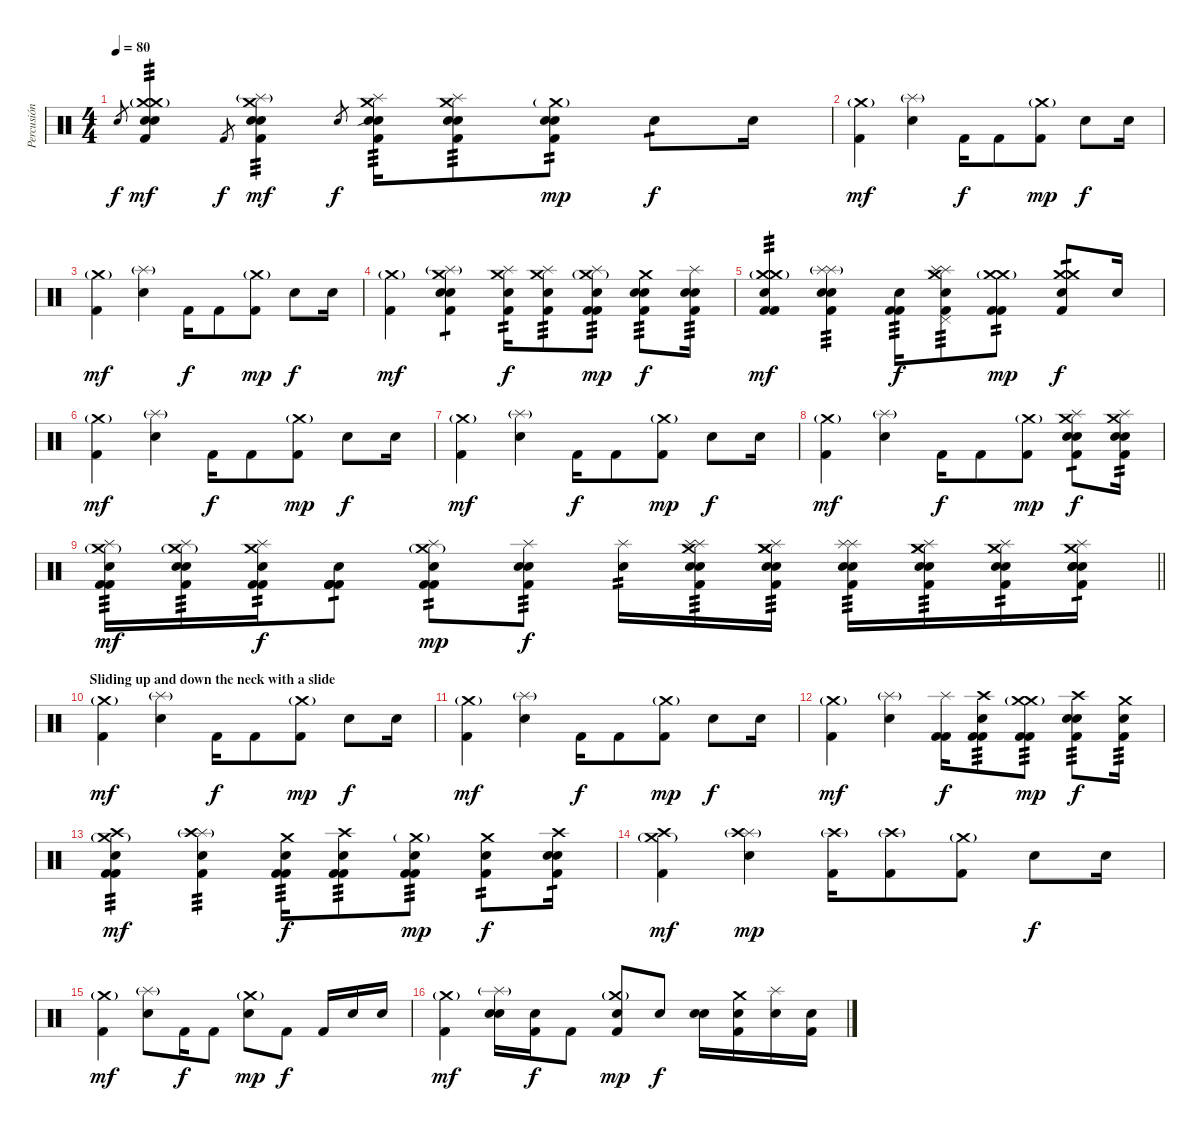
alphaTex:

\track ("Percusión" "Percusión") {instrument percussion}
\staff {score}
\articulation defaults
\ts (4 4)
\tempo 80
\clef neutral
\ks c "Snare (hit) 2".8{gr dy f}
("Crash medium (hit)"{g} "Crash medium (hit)" "Snare (hit) 2" "Kick (hit) 2" "Snare (hit) 2").4{tp 3 dy mf} "Kick (hit) 2".8{gr dy f} ("Splash (hit)"{g} "Crash medium (hit)" "Kick (hit) 2" "Snare (hit) 2" "Snare (hit) 2").4{tp 3 dy mf} "Snare (hit) 2".8{gr dy f} ("Splash (hit)" "Crash medium (hit)" "Snare (hit) 2"{sib} "Kick (hit) 2" "Snare (hit) 2").16{tp 3} ("Splash (hit)" "Crash medium (hit)" "Snare (hit) 2" "Kick (hit) 2" "Snare (hit) 2").8{tp 3} ("Crash medium (hit)"{g} "Snare (hit) 2" "Kick (hit) 2" "Snare (hit) 2").8{tp 2 dy mp} "Snare (hit) 2".8{tp 1 dy f} "Snare (hit)"{x}.16 |
("Crash medium (hit)"{g} "Kick (hit) 2").4{dy mf} ("Splash (hit)"{g} "Snare (hit) 2").4 "Kick (hit) 2".16{dy f} "Kick (hit) 2".8 ("Crash medium (hit)"{g} "Kick (hit) 2").8{dy mp} "Snare (hit) 2".8{dy f} "Snare (hit)"{x}.16 |
("Crash medium (hit)"{g} "Kick (hit) 2").4{dy mf} ("Splash (hit)"{g} "Snare (hit) 2").4 "Kick (hit) 2".16{dy f} "Kick (hit) 2".8 ("Crash medium (hit)"{g} "Kick (hit) 2").8{dy mp} "Snare (hit) 2".8{dy f} "Snare (hit)"{x}.16 |
("Crash medium (hit)"{g} "Kick (hit) 2").4{dy mf} ("Splash (hit)"{g} "Kick (hit) 2" "Crash medium (hit)" "Snare (hit) 2" "Snare (hit) 2").4{tp 1} ("Crash medium (hit)" "Snare (hit) 2" "Kick (hit) 2" "Splash (hit)").16{tp 2 dy f} ("Crash medium (hit)" "Snare (hit) 2" "Kick (hit) 2" "Splash (hit)").8{tp 3} ("Crash medium (hit)"{g} "Kick (hit) 2" "Splash (hit)" "Kick (hit) 2" "Snare (hit) 2").8{tp 3 dy mp} ("Kick (hit) 2" "Crash medium (hit)" "Snare (hit) 2" "Snare (hit) 2").8{tp 3 dy f} ("Kick (hit) 2" "Splash (hit)" "Snare (hit) 2" "Snare (hit) 2").16{tp 3} |
("Crash medium (hit)"{g} "Kick (hit) 2" "Crash medium (hit)" "Kick (hit) 2" "Snare (hit) 2").4{tp 3 dy mf} ("Splash (hit)"{g} "Kick (hit) 2" "Splash (hit)" "Snare (hit) 2" "Snare (hit) 2").4{tp 3} ("Kick (hit) 2" "Kick (hit) 2" "Snare (hit) 2").16{tp 3 dy f} ("Pedal Hi-Hat (hit)" "Splash (hit)" "Crash medium (hit)" "Kick (hit) 2" "Splash (hit)" "Snare (hit) 2").8{tp 3} ("Crash medium (hit)"{g} "Kick (hit) 2" "Crash medium (hit)" "Kick (hit) 2").8{tp 2 dy mp} ("Crash medium (hit)" "Kick (hit) 2" "Crash medium (hit)" "Snare (hit) 2").8{tp 1 dy f} "Snare (hit)"{x}.16 |
("Crash medium (hit)"{g} "Kick (hit) 2").4{dy mf} ("Splash (hit)"{g} "Snare (hit) 2").4 "Kick (hit) 2".16{dy f} "Kick (hit) 2".8 ("Crash medium (hit)"{g} "Kick (hit) 2").8{dy mp} "Snare (hit) 2".8{dy f} "Snare (hit)"{x}.16 |
("Crash medium (hit)"{g} "Kick (hit) 2").4{dy mf} ("Splash (hit)"{g} "Snare (hit) 2").4 "Kick (hit) 2".16{dy f} "Kick (hit) 2".8 ("Crash medium (hit)"{g} "Kick (hit) 2").8{dy mp} "Snare (hit) 2".8{dy f} "Snare (hit)"{x}.16 |
("Crash medium (hit)"{g} "Kick (hit) 2").4{dy mf} ("Splash (hit)"{g} "Snare (hit) 2").4 "Kick (hit) 2".16{dy f} "Kick (hit) 2".8 ("Crash medium (hit)"{g} "Kick (hit) 2").8{dy mp} ("Snare (hit) 2" "Crash medium (hit)" "Splash (hit)" "Kick (hit) 2" "Snare (hit) 2").8{tp 1 dy f} ("Snare (hit) 2" "Crash medium (hit)" "Splash (hit)" "Kick (hit) 2" "Snare (hit)"{x}).16{tp 2} |
\barLineRight lightlight
("Snare (hit) 2" "Crash medium (hit)"{g} "Splash (hit)" "Kick (hit) 2" "Kick (hit) 2").16{tp 3 dy mf} ("Snare (hit) 2" "Crash medium (hit)"{g} "Splash (hit)" "Kick (hit) 2" "Snare (hit) 2").16{tp 3} ("Snare (hit) 2" "Crash medium (hit)" "Splash (hit)" "Kick (hit) 2" "Kick (hit) 2").16{tp 2 dy f} ("Kick (hit) 2" "Kick (hit) 2" "Snare (hit) 2" "Kick (hit) 2" "Kick (hit) 2").8{tp 1} ("Crash medium (hit)"{g} "Snare (hit) 2" "Splash (hit)" "Kick (hit) 2" "Kick (hit) 2").8{tp 2 dy mp} ("Snare (hit) 2" "Splash (hit)" "Snare (hit) 2" "Kick (hit) 2").8{tp 3 dy f} ("Splash (hit)" "Snare (hit)"{x}).16{tp 2} ("Splash (hit)" "Snare (hit) 2" "Kick (hit) 2" "Snare (hit) 2" "Crash medium (hit)" "Splash (hit)").16{tp 3} ("Crash medium (hit)" "Snare (hit) 2" "Kick (hit) 2" "Snare (hit) 2" "Crash medium (hit)" "Splash (hit)").16{tp 3} ("Splash (hit)" "Snare (hit) 2" "Kick (hit) 2" "Snare (hit) 2" "Splash (hit)").16{tp 3} ("Crash medium (hit)" "Snare (hit) 2" "Kick (hit) 2" "Snare (hit) 2" "Crash medium (hit)" "Splash (hit)").16{tp 3} ("Crash medium (hit)" "Snare (hit) 2" "Kick (hit) 2" "Snare (hit) 2" "Splash (hit)").16{tp 2} ("Electric Snare (hit)" "Snare (hit) 2" "Kick (hit) 2" "Snare (hit) 2" "Crash medium (hit)" "Splash (hit)").16{tp 1} |
\section ("" "Sliding up and down the neck with a slide")
("Crash medium (hit)"{g} "Kick (hit) 2").4{dy mf} ("Splash (hit)"{g} "Snare (hit) 2").4 "Kick (hit) 2".16{dy f} "Kick (hit) 2".8 ("Crash medium (hit)"{g} "Kick (hit) 2").8{dy mp} "Snare (hit) 2".8{dy f} "Snare (hit)"{x}.16 |
("Crash medium (hit)"{g} "Kick (hit) 2").4{dy mf} ("Splash (hit)"{g} "Snare (hit) 2").4 "Kick (hit) 2".16{dy f} "Kick (hit) 2".8 ("Crash medium (hit)"{g} "Kick (hit) 2").8{dy mp} "Snare (hit) 2".8{dy f} "Snare (hit)"{x}.16 |
("Crash medium (hit)"{g} "Kick (hit) 2").4{dy mf} ("Splash (hit)"{g} "Snare (hit) 2").4 ("Splash (hit)" "Kick (hit) 2" "Kick (hit) 2").16{dy f} ("Crash high (hit)" "Snare (hit) 2" "Kick (hit) 2" "Kick (hit) 2").8{tp 3} ("Crash medium (hit)"{g} "Crash medium (hit)" "Kick (hit) 2" "Kick (hit) 2").8{tp 3 dy mp} ("Crash high (hit)" "Snare (hit) 2" "Snare (hit) 2" "Kick (hit) 2").8{tp 3 dy f} ("Crash medium (hit)" "Snare (hit)"{x} "Kick (hit) 2").16{tp 3} |
("Crash medium (hit)"{g} "Crash high (hit)" "Snare (hit) 2" "Kick (hit) 2" "Kick (hit) 2").4{tp 3 dy mf} ("Splash (hit)"{g} "Crash high (hit)" "Snare (hit) 2" "Kick (hit) 2").4{tp 3} ("Crash medium (hit)" "Snare (hit) 2" "Kick (hit) 2" "Kick (hit) 2").16{tp 3 dy f} ("Crash high (hit)" "Snare (hit) 2" "Kick (hit) 2" "Kick (hit) 2").8{tp 3} ("Crash medium (hit)"{g} "Snare (hit) 2" "Kick (hit) 2" "Kick (hit) 2").8{tp 3 dy mp} ("Crash medium (hit)" "Snare (hit) 2" "Kick (hit) 2").8{tp 2 dy f} ("Crash high (hit)" "Snare (hit) 2" "Snare (hit)"{x} "Kick (hit) 2").16{tp 1} |
("Crash medium (hit)"{g} "Crash high (hit)" "Kick (hit) 2").4{dy mf} ("Splash (hit)"{g} "Crash high (hit)"{g} "Snare (hit) 2").4{dy mp} ("Crash high (hit)"{g} "Kick (hit) 2").16 ("Crash high (hit)"{g} "Kick (hit) 2").8 ("Crash medium (hit)"{g} "Kick (hit) 2").8 "Snare (hit) 2".8{dy f} "Snare (hit)"{x}.16 |
("Crash medium (hit)"{g} "Kick (hit) 2").4{dy mf} ("Splash (hit)"{g} "Snare (hit) 2").8 "Kick (hit) 2".16{dy f} "Kick (hit) 2".8 ("Crash medium (hit)"{g} "Snare (hit) 2").8{dy mp} "Kick (hit) 2".8{dy f} "Kick (hit) 2".16 "Snare (hit) 2".16 "Snare (hit) 2".16 |
("Crash medium (hit)"{g} "Kick (hit) 2").4{dy mf} ("Splash (hit)"{g} "Snare (hit) 2" "Snare (hit) 2").16 ("Snare (hit) 2" "Kick (hit) 2").16{dy f} "Kick (hit) 2".8 ("Crash medium (hit)"{g} "Snare (hit) 2" "Kick (hit) 2").8{dy mp} "Snare (hit) 2".8{dy f} ("Snare (hit) 2" "Snare (hit)"{x}).16 ("Crash medium (hit)" "Snare (hit) 2" "Kick (hit) 2").16 ("Splash (hit)" "Snare (hit) 2").16 ("Snare (hit) 2" "Kick (hit) 2").16
